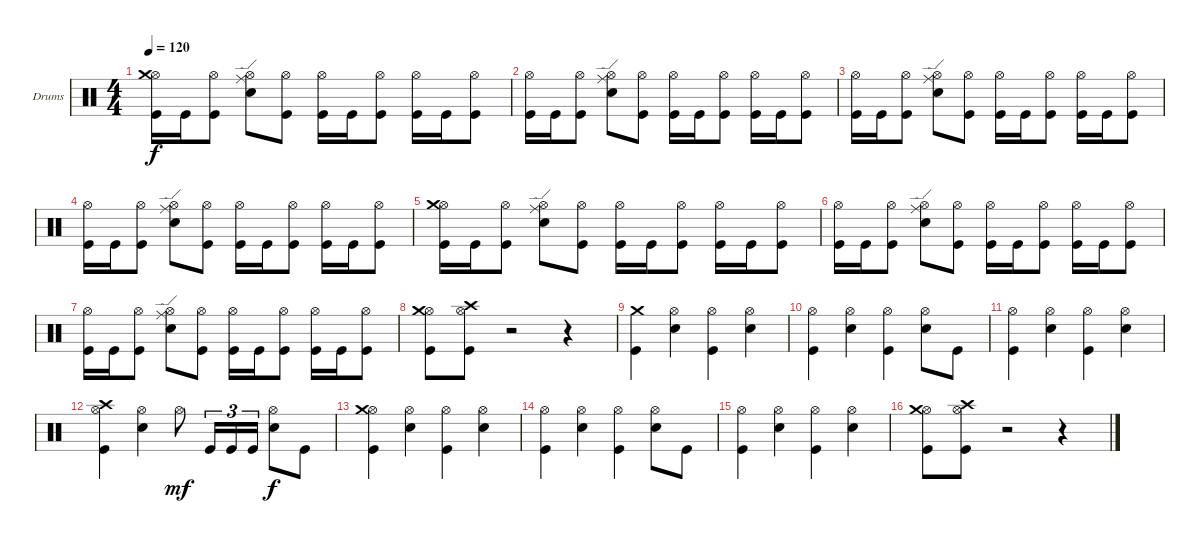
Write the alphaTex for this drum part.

\defaultSystemsLayout 4
\bracketExtendMode groupsimilarinstruments
\firstSystemTrackNameOrientation horizontal
\otherSystemsTrackNameOrientation horizontal
\track ("Drumkit" "Drums") {instrument percussion}
\staff {score}
\articulation defaults
\ts (4 4)
\tempo 120
\clef neutral
\ks c
("Kick (hit)" "Hi-Hat (open)" "Crash medium (hit)").16{dy f} "Kick (hit)".16 ("Kick (hit)" "Hi-Hat (open)").8 ("Snare (hit) 2" "Hi-Hat (open)" "Ride (edge)").8 ("Kick (hit)" "Hi-Hat (open)").8 ("Kick (hit)" "Hi-Hat (open)").16 "Kick (hit)".16 ("Kick (hit)" "Hi-Hat (open)").8 ("Kick (hit)" "Hi-Hat (open)").16 "Kick (hit)".16 ("Kick (hit)" "Hi-Hat (open)").8 |
("Kick (hit)" "Hi-Hat (open)").16 "Kick (hit)".16 ("Kick (hit)" "Hi-Hat (open)").8 ("Snare (hit) 2" "Hi-Hat (open)" "Ride (edge)").8 ("Kick (hit)" "Hi-Hat (open)").8 ("Kick (hit)" "Hi-Hat (open)").16 "Kick (hit)".16 ("Kick (hit)" "Hi-Hat (open)").8 ("Kick (hit)" "Hi-Hat (open)").16 "Kick (hit)".16 ("Kick (hit)" "Hi-Hat (open)").8 |
("Kick (hit)" "Hi-Hat (open)").16 "Kick (hit)".16 ("Kick (hit)" "Hi-Hat (open)").8 ("Snare (hit) 2" "Hi-Hat (open)" "Ride (edge)").8 ("Kick (hit)" "Hi-Hat (open)").8 ("Kick (hit)" "Hi-Hat (open)").16 "Kick (hit)".16 ("Kick (hit)" "Hi-Hat (open)").8 ("Kick (hit)" "Hi-Hat (open)").16 "Kick (hit)".16 ("Kick (hit)" "Hi-Hat (open)").8 |
("Kick (hit)" "Hi-Hat (open)").16 "Kick (hit)".16 ("Kick (hit)" "Hi-Hat (open)").8 ("Snare (hit) 2" "Hi-Hat (open)" "Ride (edge)").8 ("Kick (hit)" "Hi-Hat (open)").8 ("Kick (hit)" "Hi-Hat (open)").16 "Kick (hit)".16 ("Kick (hit)" "Hi-Hat (open)").8 ("Kick (hit)" "Hi-Hat (open)").16 "Kick (hit)".16 ("Kick (hit)" "Hi-Hat (open)").8 |
("Kick (hit)" "Hi-Hat (open)" "Crash medium (hit)").16 "Kick (hit)".16 ("Kick (hit)" "Hi-Hat (open)").8 ("Snare (hit) 2" "Hi-Hat (open)" "Ride (edge)").8 ("Kick (hit)" "Hi-Hat (open)").8 ("Kick (hit)" "Hi-Hat (open)").16 "Kick (hit)".16 ("Kick (hit)" "Hi-Hat (open)").8 ("Kick (hit)" "Hi-Hat (open)").16 "Kick (hit)".16 ("Kick (hit)" "Hi-Hat (open)").8 |
("Kick (hit)" "Hi-Hat (open)").16 "Kick (hit)".16 ("Kick (hit)" "Hi-Hat (open)").8 ("Snare (hit) 2" "Hi-Hat (open)" "Ride (edge)").8 ("Kick (hit)" "Hi-Hat (open)").8 ("Kick (hit)" "Hi-Hat (open)").16 "Kick (hit)".16 ("Kick (hit)" "Hi-Hat (open)").8 ("Kick (hit)" "Hi-Hat (open)").16 "Kick (hit)".16 ("Kick (hit)" "Hi-Hat (open)").8 |
("Kick (hit)" "Hi-Hat (open)").16 "Kick (hit)".16 ("Kick (hit)" "Hi-Hat (open)").8 ("Snare (hit) 2" "Hi-Hat (open)" "Ride (edge)").8 ("Kick (hit)" "Hi-Hat (open)").8 ("Kick (hit)" "Hi-Hat (open)").16 "Kick (hit)".16 ("Kick (hit)" "Hi-Hat (open)").8 ("Kick (hit)" "Hi-Hat (open)").16 "Kick (hit)".16 ("Kick (hit)" "Hi-Hat (open)").8 |
("Kick (hit)" "Hi-Hat (open)" "Crash medium (hit)").8 ("Kick (hit)" "Hi-Hat (open)" "Crash high (hit)").8 r.2 r.4 |
("Kick (hit)" "Crash medium (hit)").4 ("Snare (hit) 2" "Hi-Hat (open)").4 ("Kick (hit)" "Hi-Hat (open)").4 ("Snare (hit) 2" "Hi-Hat (open)").4 |
("Kick (hit)" "Hi-Hat (open)").4 ("Snare (hit) 2" "Hi-Hat (open)").4 ("Kick (hit)" "Hi-Hat (open)").4 ("Snare (hit) 2" "Hi-Hat (open)").8 "Kick (hit)".8 |
("Kick (hit)" "Hi-Hat (open)").4 ("Snare (hit) 2" "Hi-Hat (open)").4 ("Kick (hit)" "Hi-Hat (open)").4 ("Snare (hit) 2" "Hi-Hat (open)").4 |
("Kick (hit)" "Hi-Hat (open)" "Crash high (hit)").4 ("Snare (hit) 2" "Hi-Hat (open)").4 "Hi-Hat (open)".8{dy mf} "Kick (hit)".16{tu (3 2)} "Kick (hit)".16{tu (3 2)} "Kick (hit)".16{tu (3 2)} ("Snare (hit) 2" "Hi-Hat (open)").8{dy f} "Kick (hit)".8 |
("Kick (hit)" "Hi-Hat (open)" "Crash medium (hit)").4 ("Snare (hit) 2" "Hi-Hat (open)").4 ("Kick (hit)" "Hi-Hat (open)").4 ("Snare (hit) 2" "Hi-Hat (open)").4 |
("Kick (hit)" "Hi-Hat (open)").4 ("Snare (hit) 2" "Hi-Hat (open)").4 ("Kick (hit)" "Hi-Hat (open)").4 ("Snare (hit) 2" "Hi-Hat (open)").8 "Kick (hit)".8 |
("Kick (hit)" "Hi-Hat (open)").4 ("Snare (hit) 2" "Hi-Hat (open)").4 ("Kick (hit)" "Hi-Hat (open)").4 ("Snare (hit) 2" "Hi-Hat (open)").4 |
("Kick (hit)" "Hi-Hat (open)" "Crash medium (hit)").8 ("Kick (hit)" "Hi-Hat (open)" "Crash high (hit)").8 r.2 r.4
